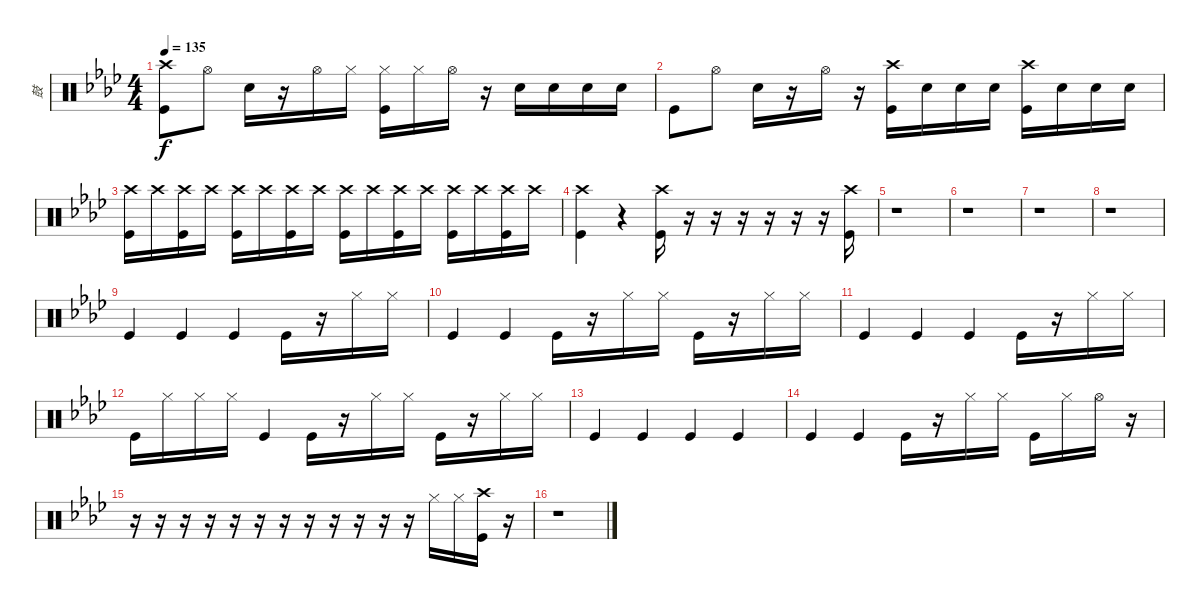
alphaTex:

\track ("鼓" "鼓") {instrument percussion}
\staff {score}
\articulation defaults
\ts (4 4)
\tempo 135
\clef neutral
\ks ab
("Crash high (hit)" "Kick (hit)").8{dy f} "Hi-Hat (open)".8 "Snare (hit) 2".16 r.16 "Hi-Hat (open)".16 "Hi-Hat (closed)".16 ("Hi-Hat (closed)" "Kick (hit)").16 "Hi-Hat (closed)".16 "Hi-Hat (open)".16 r.16 "Snare (hit) 2".16 "Snare (hit) 2".16 "Snare (hit) 2".16 "Snare (hit) 2".16 |
"Kick (hit)".8 "Hi-Hat (open)".8 "Snare (hit) 2".16 r.16 "Hi-Hat (open)".16 r.16 ("Crash high (hit)" "Kick (hit)").16 "Snare (hit) 2".16 "Snare (hit) 2".16 "Snare (hit) 2".16 ("Crash high (hit)" "Kick (hit)").16 "Snare (hit) 2".16 "Snare (hit) 2".16 "Snare (hit) 2".16 |
("Crash high (hit)" "Kick (hit)").16 "Crash high (hit)".16 ("Crash high (hit)" "Kick (hit)").16 "Crash high (hit)".16 ("Crash high (hit)" "Kick (hit)").16 "Crash high (hit)".16 ("Crash high (hit)" "Kick (hit)").16 "Crash high (hit)".16 ("Crash high (hit)" "Kick (hit)").16 "Crash high (hit)".16 ("Crash high (hit)" "Kick (hit)").16 "Crash high (hit)".16 ("Crash high (hit)" "Kick (hit)").16 "Crash high (hit)".16 ("Crash high (hit)" "Kick (hit)").16 "Crash high (hit)".16 |
("Crash high (hit)" "Kick (hit)").4 r.4 ("Crash high (hit)" "Kick (hit)").16 r.16 r.16 r.16 r.16 r.16 r.16 ("Crash high (hit)" "Kick (hit)").16 |
r.1 |
r.1 |
r.1 |
r.1 |
"Kick (hit)".4 "Kick (hit)".4 "Kick (hit)".4 "Kick (hit)".16 r.16 "Hi-Hat (closed)".16 "Hi-Hat (closed)".16 |
"Kick (hit)".4 "Kick (hit)".4 "Kick (hit)".16 r.16 "Hi-Hat (closed)".16 "Hi-Hat (closed)".16 "Kick (hit)".16 r.16 "Hi-Hat (closed)".16 "Hi-Hat (closed)".16 |
"Kick (hit)".4 "Kick (hit)".4 "Kick (hit)".4 "Kick (hit)".16 r.16 "Hi-Hat (closed)".16 "Hi-Hat (closed)".16 |
"Kick (hit)".16 "Hi-Hat (closed)".16 "Hi-Hat (closed)".16 "Hi-Hat (closed)".16 "Kick (hit)".4 "Kick (hit)".16 r.16 "Hi-Hat (closed)".16 "Hi-Hat (closed)".16 "Kick (hit)".16 r.16 "Hi-Hat (closed)".16 "Hi-Hat (closed)".16 |
"Kick (hit)".4 "Kick (hit)".4 "Kick (hit)".4 "Kick (hit)".4 |
"Kick (hit)".4 "Kick (hit)".4 "Kick (hit)".16 r.16 "Hi-Hat (closed)".16 "Hi-Hat (closed)".16 "Kick (hit)".16 "Hi-Hat (closed)".16 "Hi-Hat (open)".16 r.16 |
r.16 r.16 r.16 r.16 r.16 r.16 r.16 r.16 r.16 r.16 r.16 r.16 "Hi-Hat (closed)".16 "Hi-Hat (closed)".16 ("Crash high (hit)" "Kick (hit)").16 r.16 |
r.1
